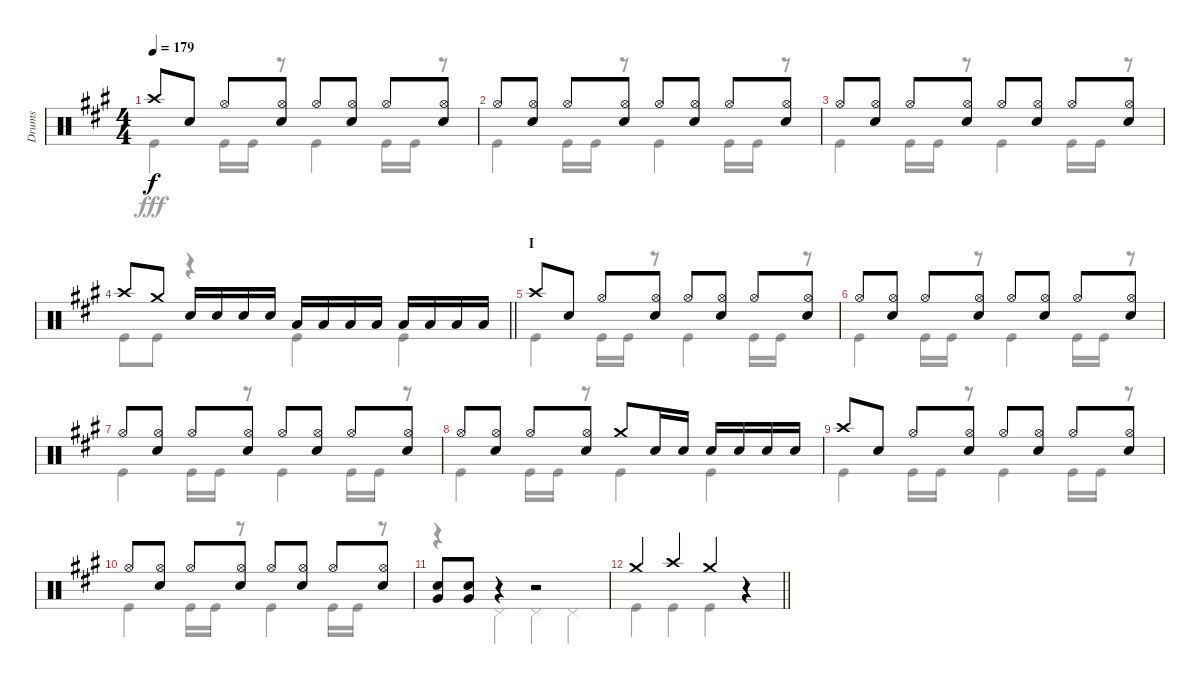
\track ("Drums" "Drums") {instrument percussion}
\staff {score}
\articulation defaults
\voice
\ts (4 4)
\tempo 179
\clef neutral
\ks a "Crash high (hit)".8{dy f} "Snare (hit) 2".8 "Hi-Hat (open)".8
("Hi-Hat (open)" "Snare (hit) 2").8 "Hi-Hat (open)".8 ("Hi-Hat (open)" "Snare (hit) 2").8 "Hi-Hat (open)".8 ("Hi-Hat (open)" "Snare (hit) 2").8 |
"Hi-Hat (open)".8 ("Hi-Hat (open)" "Snare (hit) 2").8 "Hi-Hat (open)".8 ("Hi-Hat (open)" "Snare (hit) 2").8 "Hi-Hat (open)".8 ("Hi-Hat (open)" "Snare (hit) 2").8 "Hi-Hat (open)".8 ("Hi-Hat (open)" "Snare (hit) 2").8 |
"Hi-Hat (open)".8 ("Hi-Hat (open)" "Snare (hit) 2").8 "Hi-Hat (open)".8 ("Hi-Hat (open)" "Snare (hit) 2").8 "Hi-Hat (open)".8 ("Hi-Hat (open)" "Snare (hit) 2").8 "Hi-Hat (open)".8 ("Hi-Hat (open)" "Snare (hit) 2").8 |
\barLineRight lightlight "Crash high (hit)".8 "Crash medium (hit)".8 "Snare (hit) 2".16 "Snare (hit) 2".16 "Snare (hit) 2".16 "Snare (hit) 2".16 "Low Tom (hit)".16 "Low Tom (hit)".16 "Low Tom (hit)".16 "Low Tom (hit)".16 "Low Tom (hit)".16 "Low Tom (hit)".16 "Low Tom (hit)".16 "Low Tom (hit)".16
|
\section ("" "I")
"Crash high (hit)".8 "Snare (hit) 2".8 "Hi-Hat (open)".8 ("Hi-Hat (open)" "Snare (hit) 2").8 "Hi-Hat (open)".8 ("Hi-Hat (open)" "Snare (hit) 2").8 "Hi-Hat (open)".8 ("Hi-Hat (open)" "Snare (hit) 2").8 |
"Hi-Hat (open)".8 ("Hi-Hat (open)" "Snare (hit) 2").8 "Hi-Hat (open)".8 ("Hi-Hat (open)" "Snare (hit) 2").8 "Hi-Hat (open)".8 ("Hi-Hat (open)" "Snare (hit) 2").8 "Hi-Hat (open)".8 ("Hi-Hat (open)" "Snare (hit) 2").8 |
"Hi-Hat (open)".8 ("Hi-Hat (open)" "Snare (hit) 2").8 "Hi-Hat (open)".8 ("Hi-Hat (open)" "Snare (hit) 2").8 "Hi-Hat (open)".8 ("Hi-Hat (open)" "Snare (hit) 2").8 "Hi-Hat (open)".8 ("Hi-Hat (open)" "Snare (hit) 2").8 |
"Hi-Hat (open)".8 ("Hi-Hat (open)" "Snare (hit) 2").8 "Hi-Hat (open)".8 ("Hi-Hat (open)" "Snare (hit) 2").8 "Crash medium (hit)".8 "Snare (hit) 2".16 "Snare (hit) 2".16 "Snare (hit) 2".16 "Snare (hit) 2".16 "Snare (hit) 2".16 "Snare (hit) 2".16 |
"Crash high (hit)".8 "Snare (hit) 2".8 "Hi-Hat (open)".8 ("Hi-Hat (open)" "Snare (hit) 2").8 "Hi-Hat (open)".8 ("Hi-Hat (open)" "Snare (hit) 2").8 "Hi-Hat (open)".8 ("Hi-Hat (open)" "Snare (hit) 2").8 |
"Hi-Hat (open)".8 ("Hi-Hat (open)" "Snare (hit) 2").8 "Hi-Hat (open)".8 ("Hi-Hat (open)" "Snare (hit) 2").8 "Hi-Hat (open)".8 ("Hi-Hat (open)" "Snare (hit) 2").8 "Hi-Hat (open)".8 ("Hi-Hat (open)" "Snare (hit) 2").8 |
("Snare (hit) 2" "Very Low Tom (hit)").8 ("Snare (hit) 2" "Very Low Tom (hit)").8 r.4 r.2 |
\barLineRight lightlight "Crash medium (hit)".4 "Crash high (hit)".4 "Crash medium (hit)".4
r.4
\voice
\clef neutral
\ottava regular
\simile none
\ks a "Kick (hit)".4{dy fff} "Kick (hit)".16 "Kick (hit)".16
r.8 "Kick (hit)".4 "Kick (hit)".16 "Kick (hit)".16 r.8 |
"Kick (hit)".4 "Kick (hit)".16 "Kick (hit)".16 r.8 "Kick (hit)".4 "Kick (hit)".16 "Kick (hit)".16 r.8 |
"Kick (hit)".4 "Kick (hit)".16 "Kick (hit)".16 r.8 "Kick (hit)".4 "Kick (hit)".16 "Kick (hit)".16 r.8 |
\barLineRight lightlight "Kick (hit)".8 "Kick (hit)".8
r.4 "Kick (hit)".4 "Kick (hit)".4 |
"Kick (hit)".4 "Kick (hit)".16 "Kick (hit)".16 r.8 "Kick (hit)".4 "Kick (hit)".16 "Kick (hit)".16 r.8 |
"Kick (hit)".4 "Kick (hit)".16 "Kick (hit)".16 r.8 "Kick (hit)".4 "Kick (hit)".16 "Kick (hit)".16 r.8 |
"Kick (hit)".4 "Kick (hit)".16 "Kick (hit)".16 r.8 "Kick (hit)".4 "Kick (hit)".16 "Kick (hit)".16 r.8 |
"Kick (hit)".4 "Kick (hit)".16 "Kick (hit)".16 r.8 "Kick (hit)".4 "Kick (hit)".4 |
"Kick (hit)".4 "Kick (hit)".16 "Kick (hit)".16 r.8 "Kick (hit)".4 "Kick (hit)".16 "Kick (hit)".16 r.8 |
"Kick (hit)".4 "Kick (hit)".16 "Kick (hit)".16 r.8 "Kick (hit)".4 "Kick (hit)".16 "Kick (hit)".16 r.8 |
r.4 "Pedal Hi-Hat (hit)".4 "Pedal Hi-Hat (hit)".4 "Pedal Hi-Hat (hit)".4 |
\barLineRight lightlight "Kick (hit)".4 "Kick (hit)".4 "Kick (hit)".4
r.4
